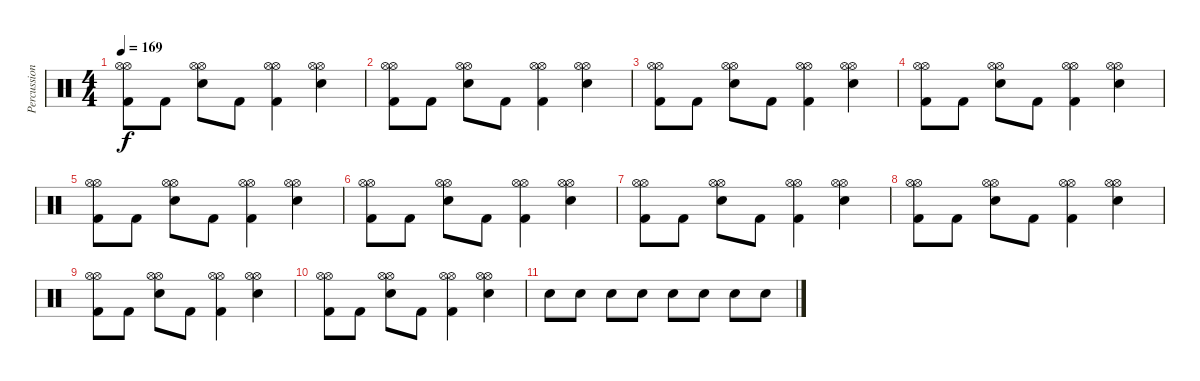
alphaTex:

\track ("Percussion" "Percussion") {instrument percussion}
\staff {score}
\articulation defaults
\ts (4 4)
\tempo 169
\clef neutral
\ks c
("Hi-Hat (open)" "Hi-Hat (open)" "Kick (hit) 2").8{dy f} "Kick (hit) 2".8 ("Hi-Hat (open)" "Hi-Hat (open)" "Snare (hit) 2").8 "Kick (hit) 2".8 ("Hi-Hat (open)" "Hi-Hat (open)" "Kick (hit) 2").4 ("Hi-Hat (open)" "Hi-Hat (open)" "Snare (hit) 2").4 |
("Hi-Hat (open)" "Hi-Hat (open)" "Kick (hit) 2").8 "Kick (hit) 2".8 ("Hi-Hat (open)" "Hi-Hat (open)" "Snare (hit) 2").8 "Kick (hit) 2".8 ("Hi-Hat (open)" "Hi-Hat (open)" "Kick (hit) 2").4 ("Hi-Hat (open)" "Hi-Hat (open)" "Snare (hit) 2").4 |
("Hi-Hat (open)" "Hi-Hat (open)" "Kick (hit) 2").8 "Kick (hit) 2".8 ("Hi-Hat (open)" "Hi-Hat (open)" "Snare (hit) 2").8 "Kick (hit) 2".8 ("Hi-Hat (open)" "Hi-Hat (open)" "Kick (hit) 2").4 ("Hi-Hat (open)" "Hi-Hat (open)" "Snare (hit) 2").4 |
("Hi-Hat (open)" "Hi-Hat (open)" "Kick (hit) 2").8 "Kick (hit) 2".8 ("Hi-Hat (open)" "Hi-Hat (open)" "Snare (hit) 2").8 "Kick (hit) 2".8 ("Hi-Hat (open)" "Hi-Hat (open)" "Kick (hit) 2").4 ("Hi-Hat (open)" "Hi-Hat (open)" "Snare (hit) 2").4 |
("Hi-Hat (open)" "Hi-Hat (open)" "Kick (hit) 2").8 "Kick (hit) 2".8 ("Hi-Hat (open)" "Hi-Hat (open)" "Snare (hit) 2").8 "Kick (hit) 2".8 ("Hi-Hat (open)" "Hi-Hat (open)" "Kick (hit) 2").4 ("Hi-Hat (open)" "Hi-Hat (open)" "Snare (hit) 2").4 |
("Hi-Hat (open)" "Hi-Hat (open)" "Kick (hit) 2").8 "Kick (hit) 2".8 ("Hi-Hat (open)" "Hi-Hat (open)" "Snare (hit) 2").8 "Kick (hit) 2".8 ("Hi-Hat (open)" "Hi-Hat (open)" "Kick (hit) 2").4 ("Hi-Hat (open)" "Hi-Hat (open)" "Snare (hit) 2").4 |
("Hi-Hat (open)" "Hi-Hat (open)" "Kick (hit) 2").8 "Kick (hit) 2".8 ("Hi-Hat (open)" "Hi-Hat (open)" "Snare (hit) 2").8 "Kick (hit) 2".8 ("Hi-Hat (open)" "Hi-Hat (open)" "Kick (hit) 2").4 ("Hi-Hat (open)" "Hi-Hat (open)" "Snare (hit) 2").4 |
("Hi-Hat (open)" "Hi-Hat (open)" "Kick (hit) 2").8 "Kick (hit) 2".8 ("Hi-Hat (open)" "Hi-Hat (open)" "Snare (hit) 2").8 "Kick (hit) 2".8 ("Hi-Hat (open)" "Hi-Hat (open)" "Kick (hit) 2").4 ("Hi-Hat (open)" "Hi-Hat (open)" "Snare (hit) 2").4 |
("Hi-Hat (open)" "Hi-Hat (open)" "Kick (hit) 2").8 "Kick (hit) 2".8 ("Hi-Hat (open)" "Hi-Hat (open)" "Snare (hit) 2").8 "Kick (hit) 2".8 ("Hi-Hat (open)" "Hi-Hat (open)" "Kick (hit) 2").4 ("Hi-Hat (open)" "Hi-Hat (open)" "Snare (hit) 2").4 |
("Hi-Hat (open)" "Hi-Hat (open)" "Kick (hit) 2").8 "Kick (hit) 2".8 ("Hi-Hat (open)" "Hi-Hat (open)" "Snare (hit) 2").8 "Kick (hit) 2".8 ("Hi-Hat (open)" "Hi-Hat (open)" "Kick (hit) 2").4 ("Hi-Hat (open)" "Hi-Hat (open)" "Snare (hit) 2").4 |
"Snare (hit) 2".8 "Snare (hit) 2".8 "Snare (hit) 2".8 "Snare (hit) 2".8 "Snare (hit) 2".8 "Snare (hit) 2".8 "Snare (hit) 2".8 "Snare (hit) 2".8
